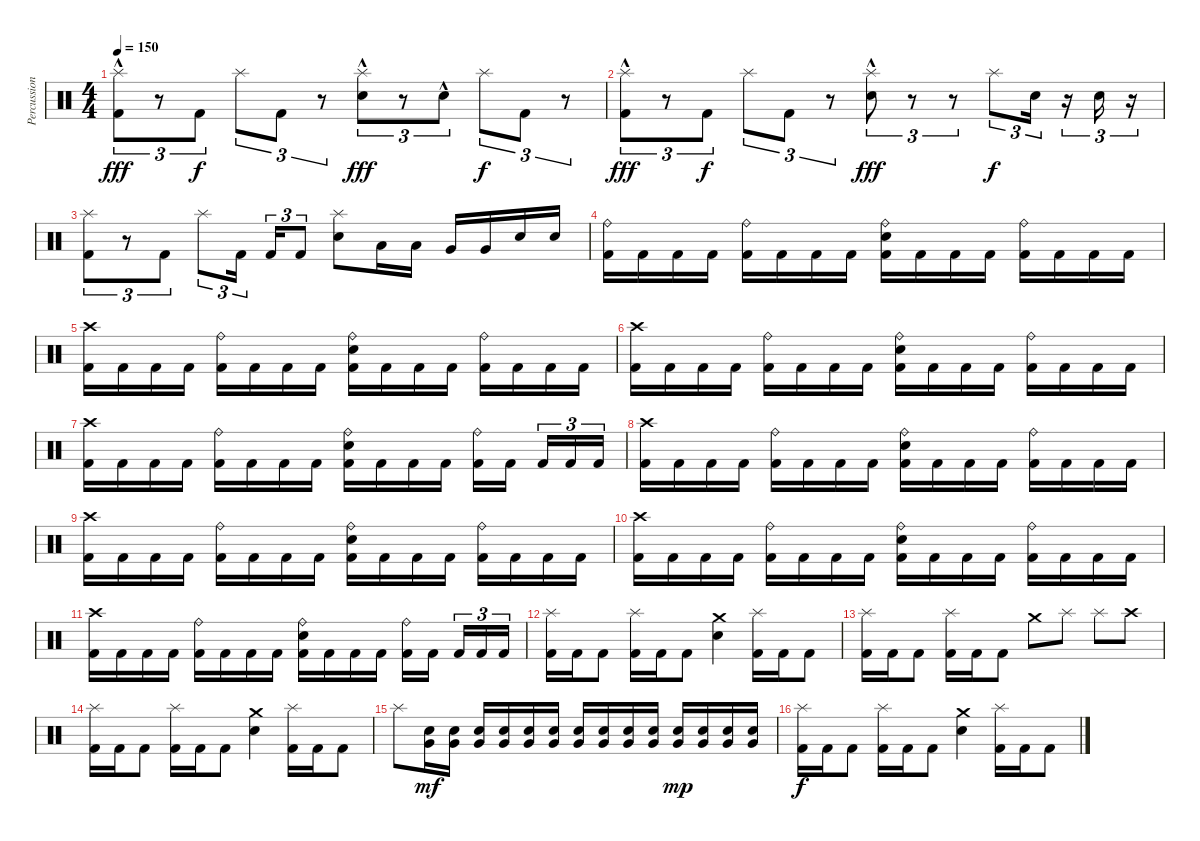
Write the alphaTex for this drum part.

\track ("Percussion" "Percussion") {instrument percussion}
\staff {score}
\articulation defaults
\ts (4 4)
\tempo 150
\clef neutral
\ks c
("Splash (hit)" "Kick (hit) 2"{hac}).8{tu (3 2) dy fff} r.8{tu (3 2)} "Kick (hit) 2".8{tu (3 2) dy f} "Splash (hit)".8{tu (3 2)} "Kick (hit) 2".8{tu (3 2)} r.8{tu (3 2)} ("Splash (hit)" "Electric Snare (hit)"{hac}).8{tu (3 2) dy fff} r.8{tu (3 2)} "Electric Snare (hit)"{hac}.8{tu (3 2)} "Splash (hit)".8{tu (3 2) dy f} "Kick (hit) 2".8{tu (3 2)} r.8{tu (3 2)} |
("Splash (hit)" "Kick (hit) 2"{hac}).8{tu (3 2) dy fff} r.8{tu (3 2)} "Kick (hit) 2".8{tu (3 2) dy f} "Splash (hit)".8{tu (3 2)} "Kick (hit) 2".8{tu (3 2)} r.8{tu (3 2)} ("Splash (hit)" "Electric Snare (hit)"{hac}).8{tu (3 2) dy fff} r.8{tu (3 2)} r.8{tu (3 2)} "Splash (hit)".8{tu (3 2) dy f} "Electric Snare (hit)".16{tu (3 2)} r.16{tu (3 2)} "Electric Snare (hit)".16{tu (3 2)} r.16{tu (3 2)} |
("Splash (hit)" "Kick (hit) 2").8{tu (3 2)} r.8{tu (3 2)} "Kick (hit) 2".8{tu (3 2)} "Splash (hit)".8{tu (3 2)} "Kick (hit) 2".16{tu (3 2) beam splitsecondary} "Kick (hit) 2".16{tu (3 2)} "Kick (hit) 2".8{tu (3 2)} ("Splash (hit)" "Electric Snare (hit)").8 "Low Tom (hit)".16 "Low Tom (hit)".16 "Very Low Tom (hit)".16 "Very Low Tom (hit)".16 "Electric Snare (hit)".16 "Electric Snare (hit)".16 |
("Ride (bell)" "Kick (hit) 2").16 "Kick (hit) 2".16 "Kick (hit) 2".16 "Kick (hit) 2".16 ("Ride (bell)" "Kick (hit) 2").16 "Kick (hit) 2".16 "Kick (hit) 2".16 "Kick (hit) 2".16 ("Ride (bell)" "Electric Snare (hit)" "Kick (hit) 2").16 "Kick (hit) 2".16 "Kick (hit) 2".16 "Kick (hit) 2".16 ("Ride (bell)" "Kick (hit) 2").16 "Kick (hit) 2".16 "Kick (hit) 2".16 "Kick (hit) 2".16 |
("Crash high (hit)" "Kick (hit) 2").16 "Kick (hit) 2".16 "Kick (hit) 2".16 "Kick (hit) 2".16 ("Ride (bell)" "Kick (hit) 2").16 "Kick (hit) 2".16 "Kick (hit) 2".16 "Kick (hit) 2".16 ("Ride (bell)" "Electric Snare (hit)" "Kick (hit) 2").16 "Kick (hit) 2".16 "Kick (hit) 2".16 "Kick (hit) 2".16 ("Ride (bell)" "Kick (hit) 2").16 "Kick (hit) 2".16 "Kick (hit) 2".16 "Kick (hit) 2".16 |
("Crash high (hit)" "Kick (hit) 2").16 "Kick (hit) 2".16 "Kick (hit) 2".16 "Kick (hit) 2".16 ("Ride (bell)" "Kick (hit) 2").16 "Kick (hit) 2".16 "Kick (hit) 2".16 "Kick (hit) 2".16 ("Ride (bell)" "Electric Snare (hit)" "Kick (hit) 2").16 "Kick (hit) 2".16 "Kick (hit) 2".16 "Kick (hit) 2".16 ("Ride (bell)" "Kick (hit) 2").16 "Kick (hit) 2".16 "Kick (hit) 2".16 "Kick (hit) 2".16 |
("Crash high (hit)" "Kick (hit) 2").16 "Kick (hit) 2".16 "Kick (hit) 2".16 "Kick (hit) 2".16 ("Ride (bell)" "Kick (hit) 2").16 "Kick (hit) 2".16 "Kick (hit) 2".16 "Kick (hit) 2".16 ("Ride (bell)" "Electric Snare (hit)" "Kick (hit) 2").16 "Kick (hit) 2".16 "Kick (hit) 2".16 "Kick (hit) 2".16 ("Ride (bell)" "Kick (hit) 2").16 "Kick (hit) 2".16{beam splitsecondary} "Kick (hit) 2".16{tu (3 2)} "Kick (hit) 2".16{tu (3 2)} "Kick (hit) 2".16{tu (3 2)} |
("Crash high (hit)" "Kick (hit) 2").16 "Kick (hit) 2".16 "Kick (hit) 2".16 "Kick (hit) 2".16 ("Ride (bell)" "Kick (hit) 2").16 "Kick (hit) 2".16 "Kick (hit) 2".16 "Kick (hit) 2".16 ("Ride (bell)" "Electric Snare (hit)" "Kick (hit) 2").16 "Kick (hit) 2".16 "Kick (hit) 2".16 "Kick (hit) 2".16 ("Ride (bell)" "Kick (hit) 2").16 "Kick (hit) 2".16 "Kick (hit) 2".16 "Kick (hit) 2".16 |
("Crash high (hit)" "Kick (hit) 2").16 "Kick (hit) 2".16 "Kick (hit) 2".16 "Kick (hit) 2".16 ("Ride (bell)" "Kick (hit) 2").16 "Kick (hit) 2".16 "Kick (hit) 2".16 "Kick (hit) 2".16 ("Ride (bell)" "Electric Snare (hit)" "Kick (hit) 2").16 "Kick (hit) 2".16 "Kick (hit) 2".16 "Kick (hit) 2".16 ("Ride (bell)" "Kick (hit) 2").16 "Kick (hit) 2".16 "Kick (hit) 2".16 "Kick (hit) 2".16 |
("Crash high (hit)" "Kick (hit) 2").16 "Kick (hit) 2".16 "Kick (hit) 2".16 "Kick (hit) 2".16 ("Ride (bell)" "Kick (hit) 2").16 "Kick (hit) 2".16 "Kick (hit) 2".16 "Kick (hit) 2".16 ("Ride (bell)" "Electric Snare (hit)" "Kick (hit) 2").16 "Kick (hit) 2".16 "Kick (hit) 2".16 "Kick (hit) 2".16 ("Ride (bell)" "Kick (hit) 2").16 "Kick (hit) 2".16 "Kick (hit) 2".16 "Kick (hit) 2".16 |
("Crash high (hit)" "Kick (hit) 2").16 "Kick (hit) 2".16 "Kick (hit) 2".16 "Kick (hit) 2".16 ("Ride (bell)" "Kick (hit) 2").16 "Kick (hit) 2".16 "Kick (hit) 2".16 "Kick (hit) 2".16 ("Ride (bell)" "Electric Snare (hit)" "Kick (hit) 2").16 "Kick (hit) 2".16 "Kick (hit) 2".16 "Kick (hit) 2".16 ("Ride (bell)" "Kick (hit) 2").16 "Kick (hit) 2".16{beam splitsecondary} "Kick (hit) 2".16{tu (3 2)} "Kick (hit) 2".16{tu (3 2)} "Kick (hit) 2".16{tu (3 2)} |
("Splash (hit)" "Kick (hit) 2").16 "Kick (hit) 2".16 "Kick (hit) 2".8 ("Splash (hit)" "Kick (hit) 2").16 "Kick (hit) 2".16 "Kick (hit) 2".8 ("Crash medium (hit)" "Electric Snare (hit)").4 ("Splash (hit)" "Kick (hit) 2").16 "Kick (hit) 2".16 "Kick (hit) 2".8 |
("Splash (hit)" "Kick (hit) 2").16 "Kick (hit) 2".16 "Kick (hit) 2".8 ("Splash (hit)" "Kick (hit) 2").16 "Kick (hit) 2".16 "Kick (hit) 2".8 "Crash medium (hit)".8 "Splash (hit)".8 "Splash (hit)".8 "Crash high (hit)".8 |
("Splash (hit)" "Kick (hit) 2").16 "Kick (hit) 2".16 "Kick (hit) 2".8 ("Splash (hit)" "Kick (hit) 2").16 "Kick (hit) 2".16 "Kick (hit) 2".8 ("Crash medium (hit)" "Electric Snare (hit)").4 ("Splash (hit)" "Kick (hit) 2").16 "Kick (hit) 2".16 "Kick (hit) 2".8 |
"Splash (hit)".8 ("Electric Snare (hit)" "Very Low Tom (hit)").16{dy mf} ("Electric Snare (hit)" "Very Low Tom (hit)").16 ("Electric Snare (hit)" "Very Low Tom (hit)").16 ("Electric Snare (hit)" "Very Low Tom (hit)").16 ("Electric Snare (hit)" "Very Low Tom (hit)").16 ("Electric Snare (hit)" "Very Low Tom (hit)").16 ("Electric Snare (hit)" "Very Low Tom (hit)").16 ("Electric Snare (hit)" "Very Low Tom (hit)").16 ("Electric Snare (hit)" "Very Low Tom (hit)").16 ("Electric Snare (hit)" "Very Low Tom (hit)").16 ("Electric Snare (hit)" "Very Low Tom (hit)").16{dy mp} ("Electric Snare (hit)" "Very Low Tom (hit)").16 ("Electric Snare (hit)" "Very Low Tom (hit)").16 ("Electric Snare (hit)" "Very Low Tom (hit)").16 |
("Splash (hit)" "Kick (hit) 2").16{dy f} "Kick (hit) 2".16 "Kick (hit) 2".8 ("Splash (hit)" "Kick (hit) 2").16 "Kick (hit) 2".16 "Kick (hit) 2".8 ("Crash medium (hit)" "Electric Snare (hit)").4 ("Splash (hit)" "Kick (hit) 2").16 "Kick (hit) 2".16 "Kick (hit) 2".8
